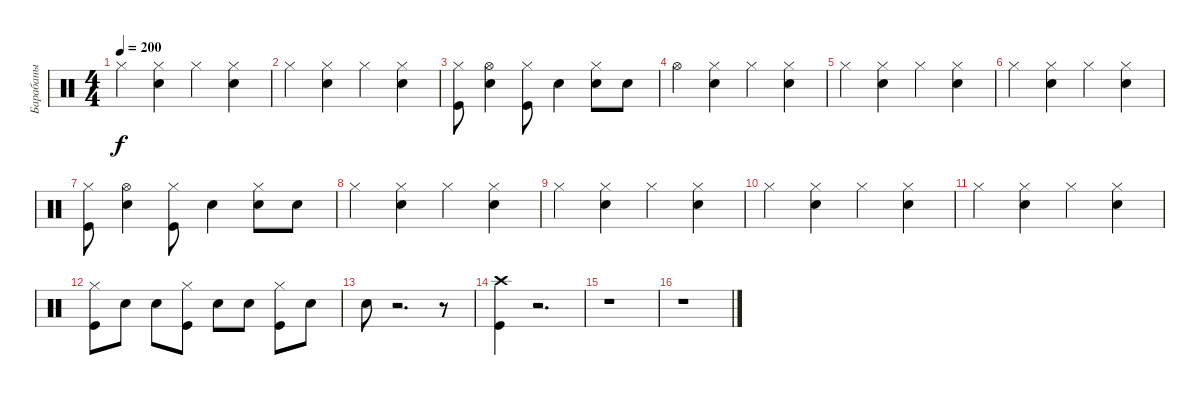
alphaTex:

\track ("Барабаны" "Барабаны") {instrument percussion}
\staff {score}
\articulation defaults
\ts (4 4)
\tempo 200
\clef neutral
\ks c "Hi-Hat (closed)".4{dy f}
("Snare (hit) 2" "Hi-Hat (closed)").4 "Hi-Hat (closed)".4 ("Snare (hit) 2" "Hi-Hat (closed)").4 |
"Hi-Hat (closed)".4 ("Snare (hit) 2" "Hi-Hat (closed)").4 "Hi-Hat (closed)".4 ("Snare (hit) 2" "Hi-Hat (closed)").4 |
("Kick (hit)" "Hi-Hat (closed)").8 ("Hi-Hat (open)" "Electric Snare (hit)").4 ("Kick (hit)" "Hi-Hat (closed)").8 "Electric Snare (hit)".4 ("Electric Snare (hit)" "Hi-Hat (closed)").8 "Electric Snare (hit)".8 |
"Hi-Hat (open)".4 ("Snare (hit) 2" "Hi-Hat (closed)").4 "Hi-Hat (closed)".4 ("Snare (hit) 2" "Hi-Hat (closed)").4 |
"Hi-Hat (closed)".4 ("Snare (hit) 2" "Hi-Hat (closed)").4 "Hi-Hat (closed)".4 ("Snare (hit) 2" "Hi-Hat (closed)").4 |
"Hi-Hat (closed)".4 ("Snare (hit) 2" "Hi-Hat (closed)").4 "Hi-Hat (closed)".4 ("Snare (hit) 2" "Hi-Hat (closed)").4 |
("Kick (hit)" "Hi-Hat (closed)").8 ("Hi-Hat (open)" "Electric Snare (hit)").4 ("Kick (hit)" "Hi-Hat (closed)").8 "Electric Snare (hit)".4 ("Electric Snare (hit)" "Hi-Hat (closed)").8 "Electric Snare (hit)".8 |
"Hi-Hat (closed)".4 ("Snare (hit) 2" "Hi-Hat (closed)").4 "Hi-Hat (closed)".4 ("Snare (hit) 2" "Hi-Hat (closed)").4 |
"Hi-Hat (closed)".4 ("Snare (hit) 2" "Hi-Hat (closed)").4 "Hi-Hat (closed)".4 ("Snare (hit) 2" "Hi-Hat (closed)").4 |
"Hi-Hat (closed)".4 ("Snare (hit) 2" "Hi-Hat (closed)").4 "Hi-Hat (closed)".4 ("Snare (hit) 2" "Hi-Hat (closed)").4 |
"Hi-Hat (closed)".4 ("Snare (hit) 2" "Hi-Hat (closed)").4 "Hi-Hat (closed)".4 ("Snare (hit) 2" "Hi-Hat (closed)").4 |
("Hi-Hat (closed)" "Kick (hit)").8 "Electric Snare (hit)".8 "Electric Snare (hit)".8 ("Hi-Hat (closed)" "Kick (hit)").8 "Electric Snare (hit)".8 "Electric Snare (hit)".8 ("Hi-Hat (closed)" "Kick (hit)").8 "Electric Snare (hit)".8 |
"Electric Snare (hit)".8 r.2{d} r.8 |
("Crash high (hit)" "Kick (hit)").4 r.2{d} |
r.1 |
r.1
